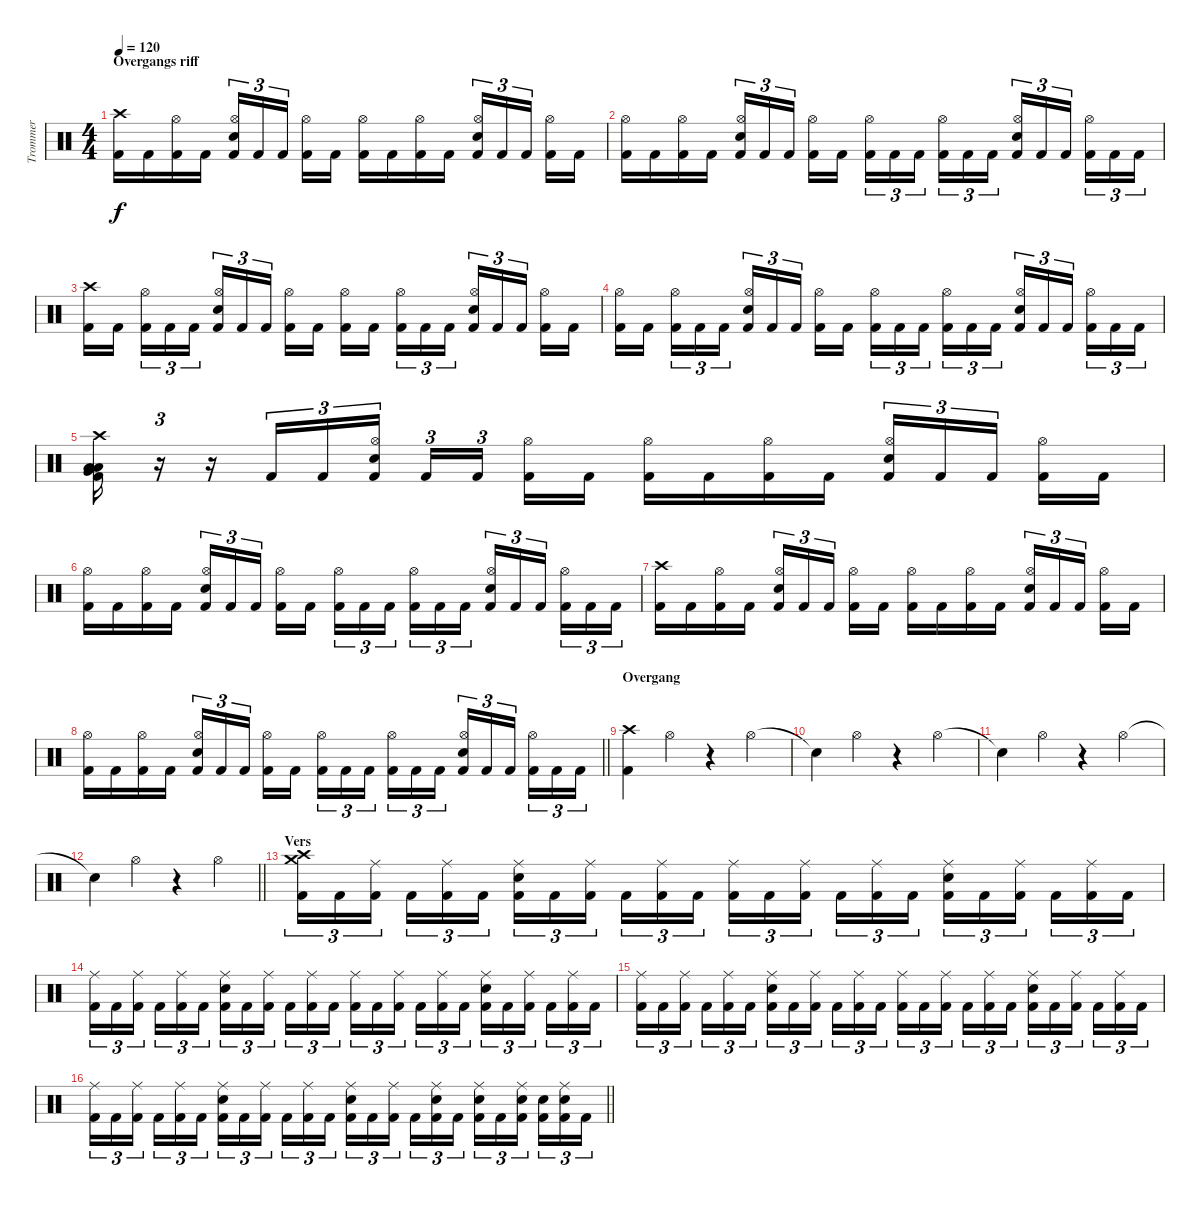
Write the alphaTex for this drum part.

\track ("Trommer" "Trommer") {instrument percussion}
\staff {score}
\articulation defaults
\ts (4 4)
\section ("" "Overgangs riff")
\tempo 120
\clef neutral
\ks c
("Crash high (hit)" "Kick (hit) 2").16{dy f} "Kick (hit) 2".16 ("Hi-Hat (open)" "Kick (hit) 2").16 "Kick (hit) 2".16 ("Hi-Hat (open)" "Snare (hit) 2" "Kick (hit) 2").16{tu (3 2)} "Kick (hit) 2".16{tu (3 2)} "Kick (hit) 2".16{tu (3 2) beam splitsecondary} ("Hi-Hat (open)" "Kick (hit) 2").16 "Kick (hit) 2".16 ("Hi-Hat (open)" "Kick (hit) 2").16 "Kick (hit) 2".16 ("Hi-Hat (open)" "Kick (hit) 2").16 "Kick (hit) 2".16 ("Hi-Hat (open)" "Snare (hit) 2" "Kick (hit) 2").16{tu (3 2)} "Kick (hit) 2".16{tu (3 2)} "Kick (hit) 2".16{tu (3 2) beam splitsecondary} ("Hi-Hat (open)" "Kick (hit) 2").16 "Kick (hit) 2".16 |
("Hi-Hat (open)" "Kick (hit) 2").16 "Kick (hit) 2".16 ("Hi-Hat (open)" "Kick (hit) 2").16 "Kick (hit) 2".16 ("Hi-Hat (open)" "Snare (hit) 2" "Kick (hit) 2").16{tu (3 2)} "Kick (hit) 2".16{tu (3 2)} "Kick (hit) 2".16{tu (3 2) beam splitsecondary} ("Hi-Hat (open)" "Kick (hit) 2").16 "Kick (hit) 2".16 ("Hi-Hat (open)" "Kick (hit) 2").16{tu (3 2)} "Kick (hit) 2".16{tu (3 2)} "Kick (hit) 2".16{tu (3 2) beam splitsecondary} ("Hi-Hat (open)" "Kick (hit) 2").16{tu (3 2)} "Kick (hit) 2".16{tu (3 2)} "Kick (hit) 2".16{tu (3 2)} ("Hi-Hat (open)" "Snare (hit) 2" "Kick (hit) 2").16{tu (3 2)} "Kick (hit) 2".16{tu (3 2)} "Kick (hit) 2".16{tu (3 2) beam splitsecondary} ("Hi-Hat (open)" "Kick (hit) 2").16{tu (3 2)} "Kick (hit) 2".16{tu (3 2)} "Kick (hit) 2".16{tu (3 2)} |
("Crash high (hit)" "Kick (hit) 2").16 "Kick (hit) 2".16{beam splitsecondary} ("Hi-Hat (open)" "Kick (hit) 2").16{tu (3 2)} "Kick (hit) 2".16{tu (3 2)} "Kick (hit) 2".16{tu (3 2)} ("Hi-Hat (open)" "Snare (hit) 2" "Kick (hit) 2").16{tu (3 2)} "Kick (hit) 2".16{tu (3 2)} "Kick (hit) 2".16{tu (3 2) beam splitsecondary} ("Hi-Hat (open)" "Kick (hit) 2").16 "Kick (hit) 2".16 ("Hi-Hat (open)" "Kick (hit) 2").16 "Kick (hit) 2".16{beam splitsecondary} ("Hi-Hat (open)" "Kick (hit) 2").16{tu (3 2)} "Kick (hit) 2".16{tu (3 2)} "Kick (hit) 2".16{tu (3 2)} ("Hi-Hat (open)" "Snare (hit) 2" "Kick (hit) 2").16{tu (3 2)} "Kick (hit) 2".16{tu (3 2)} "Kick (hit) 2".16{tu (3 2) beam splitsecondary} ("Hi-Hat (open)" "Kick (hit) 2").16 "Kick (hit) 2".16 |
("Hi-Hat (open)" "Kick (hit) 2").16 "Kick (hit) 2".16{beam splitsecondary} ("Hi-Hat (open)" "Kick (hit) 2").16{tu (3 2)} "Kick (hit) 2".16{tu (3 2)} "Kick (hit) 2".16{tu (3 2)} ("Hi-Hat (open)" "Snare (hit) 2" "Kick (hit) 2").16{tu (3 2)} "Kick (hit) 2".16{tu (3 2)} "Kick (hit) 2".16{tu (3 2) beam splitsecondary} ("Hi-Hat (open)" "Kick (hit) 2").16 "Kick (hit) 2".16 ("Hi-Hat (open)" "Kick (hit) 2").16{tu (3 2)} "Kick (hit) 2".16{tu (3 2)} "Kick (hit) 2".16{tu (3 2) beam splitsecondary} ("Hi-Hat (open)" "Kick (hit) 2").16{tu (3 2)} "Kick (hit) 2".16{tu (3 2)} "Kick (hit) 2".16{tu (3 2)} ("Hi-Hat (open)" "Snare (hit) 2" "Kick (hit) 2").16{tu (3 2)} "Kick (hit) 2".16{tu (3 2)} "Kick (hit) 2".16{tu (3 2) beam splitsecondary} ("Hi-Hat (open)" "Kick (hit) 2").16{tu (3 2)} "Kick (hit) 2".16{tu (3 2)} "Kick (hit) 2".16{tu (3 2)} |
("Crash high (hit)" "Low Floor Tom (hit)" "Low Tom (hit)" "Very Low Tom (hit)" "Kick (hit) 2").16 r.16{tu (3 2)} r.16 "Kick (hit) 2".16{tu (3 2)} "Kick (hit) 2".16{tu (3 2)} ("Hi-Hat (open)" "Snare (hit) 2" "Kick (hit) 2").16{tu (3 2) beam splitsecondary} "Kick (hit) 2".16{tu (3 2)} "Kick (hit) 2".16{tu (3 2) beam splitsecondary} ("Hi-Hat (open)" "Kick (hit) 2").16 "Kick (hit) 2".16 ("Hi-Hat (open)" "Kick (hit) 2").16 "Kick (hit) 2".16 ("Hi-Hat (open)" "Kick (hit) 2").16 "Kick (hit) 2".16 ("Hi-Hat (open)" "Snare (hit) 2" "Kick (hit) 2").16{tu (3 2)} "Kick (hit) 2".16{tu (3 2)} "Kick (hit) 2".16{tu (3 2) beam splitsecondary} ("Hi-Hat (open)" "Kick (hit) 2").16 "Kick (hit) 2".16 |
("Hi-Hat (open)" "Kick (hit) 2").16 "Kick (hit) 2".16 ("Hi-Hat (open)" "Kick (hit) 2").16 "Kick (hit) 2".16 ("Hi-Hat (open)" "Snare (hit) 2" "Kick (hit) 2").16{tu (3 2)} "Kick (hit) 2".16{tu (3 2)} "Kick (hit) 2".16{tu (3 2) beam splitsecondary} ("Hi-Hat (open)" "Kick (hit) 2").16 "Kick (hit) 2".16 ("Hi-Hat (open)" "Kick (hit) 2").16{tu (3 2)} "Kick (hit) 2".16{tu (3 2)} "Kick (hit) 2".16{tu (3 2) beam splitsecondary} ("Hi-Hat (open)" "Kick (hit) 2").16{tu (3 2)} "Kick (hit) 2".16{tu (3 2)} "Kick (hit) 2".16{tu (3 2)} ("Hi-Hat (open)" "Snare (hit) 2" "Kick (hit) 2").16{tu (3 2)} "Kick (hit) 2".16{tu (3 2)} "Kick (hit) 2".16{tu (3 2) beam splitsecondary} ("Hi-Hat (open)" "Kick (hit) 2").16{tu (3 2)} "Kick (hit) 2".16{tu (3 2)} "Kick (hit) 2".16{tu (3 2)} |
("Crash high (hit)" "Kick (hit) 2").16 "Kick (hit) 2".16 ("Hi-Hat (open)" "Kick (hit) 2").16 "Kick (hit) 2".16 ("Hi-Hat (open)" "Snare (hit) 2" "Kick (hit) 2").16{tu (3 2)} "Kick (hit) 2".16{tu (3 2)} "Kick (hit) 2".16{tu (3 2) beam splitsecondary} ("Hi-Hat (open)" "Kick (hit) 2").16 "Kick (hit) 2".16 ("Hi-Hat (open)" "Kick (hit) 2").16 "Kick (hit) 2".16 ("Hi-Hat (open)" "Kick (hit) 2").16 "Kick (hit) 2".16 ("Hi-Hat (open)" "Snare (hit) 2" "Kick (hit) 2").16{tu (3 2)} "Kick (hit) 2".16{tu (3 2)} "Kick (hit) 2".16{tu (3 2) beam splitsecondary} ("Hi-Hat (open)" "Kick (hit) 2").16 "Kick (hit) 2".16 |
\barLineRight lightlight
("Hi-Hat (open)" "Kick (hit) 2").16 "Kick (hit) 2".16 ("Hi-Hat (open)" "Kick (hit) 2").16 "Kick (hit) 2".16 ("Hi-Hat (open)" "Snare (hit) 2" "Kick (hit) 2").16{tu (3 2)} "Kick (hit) 2".16{tu (3 2)} "Kick (hit) 2".16{tu (3 2) beam splitsecondary} ("Hi-Hat (open)" "Kick (hit) 2").16 "Kick (hit) 2".16 ("Hi-Hat (open)" "Kick (hit) 2").16{tu (3 2)} "Kick (hit) 2".16{tu (3 2)} "Kick (hit) 2".16{tu (3 2) beam splitsecondary} ("Hi-Hat (open)" "Kick (hit) 2").16{tu (3 2)} "Kick (hit) 2".16{tu (3 2)} "Kick (hit) 2".16{tu (3 2)} ("Hi-Hat (open)" "Snare (hit) 2" "Kick (hit) 2").16{tu (3 2)} "Kick (hit) 2".16{tu (3 2)} "Kick (hit) 2".16{tu (3 2) beam splitsecondary} ("Hi-Hat (open)" "Kick (hit) 2").16{tu (3 2)} "Kick (hit) 2".16{tu (3 2)} "Kick (hit) 2".16{tu (3 2)} |
\section ("" "Overgang")
("Crash high (hit)" "Kick (hit) 2").4 "Hi-Hat (open)".4 r.4 "Hi-Hat (open)".4 |
"Snare (hit)"{t}.4 "Hi-Hat (open)".4 r.4 "Hi-Hat (open)".4 |
"Snare (hit)"{t}.4 "Hi-Hat (open)".4 r.4 "Hi-Hat (open)".4 |
\barLineRight lightlight "Snare (hit)"{t}.4 "Hi-Hat (open)".4
r.4 "Hi-Hat (open)".4 |
\section ("" "Vers")
("Crash medium (hit)" "Crash high (hit)" "Kick (hit) 2").16{tu (3 2)} "Kick (hit) 2".16{tu (3 2)} ("Ride (middle)" "Kick (hit) 2").16{tu (3 2) beam splitsecondary} "Kick (hit) 2".16{tu (3 2)} ("Ride (middle)" "Kick (hit) 2").16{tu (3 2)} "Kick (hit) 2".16{tu (3 2)} ("Ride (middle)" "Snare (hit) 2" "Kick (hit) 2").16{tu (3 2)} "Kick (hit) 2".16{tu (3 2)} ("Ride (middle)" "Kick (hit) 2").16{tu (3 2) beam splitsecondary} "Kick (hit) 2".16{tu (3 2)} ("Ride (middle)" "Kick (hit) 2").16{tu (3 2)} "Kick (hit) 2".16{tu (3 2)} ("Ride (middle)" "Kick (hit) 2").16{tu (3 2)} "Kick (hit) 2".16{tu (3 2)} ("Ride (middle)" "Kick (hit) 2").16{tu (3 2) beam splitsecondary} "Kick (hit) 2".16{tu (3 2)} ("Ride (middle)" "Kick (hit) 2").16{tu (3 2)} "Kick (hit) 2".16{tu (3 2)} ("Ride (middle)" "Snare (hit) 2" "Kick (hit) 2").16{tu (3 2)} "Kick (hit) 2".16{tu (3 2)} ("Ride (middle)" "Kick (hit) 2").16{tu (3 2) beam splitsecondary} "Kick (hit) 2".16{tu (3 2)} ("Ride (middle)" "Kick (hit) 2").16{tu (3 2)} "Kick (hit) 2".16{tu (3 2)} |
("Ride (middle)" "Kick (hit) 2").16{tu (3 2)} "Kick (hit) 2".16{tu (3 2)} ("Ride (middle)" "Kick (hit) 2").16{tu (3 2) beam splitsecondary} "Kick (hit) 2".16{tu (3 2)} ("Ride (middle)" "Kick (hit) 2").16{tu (3 2)} "Kick (hit) 2".16{tu (3 2)} ("Ride (middle)" "Snare (hit) 2" "Kick (hit) 2").16{tu (3 2)} "Kick (hit) 2".16{tu (3 2)} ("Ride (middle)" "Kick (hit) 2").16{tu (3 2) beam splitsecondary} "Kick (hit) 2".16{tu (3 2)} ("Ride (middle)" "Kick (hit) 2").16{tu (3 2)} "Kick (hit) 2".16{tu (3 2)} ("Ride (middle)" "Kick (hit) 2").16{tu (3 2)} "Kick (hit) 2".16{tu (3 2)} ("Ride (middle)" "Kick (hit) 2").16{tu (3 2) beam splitsecondary} "Kick (hit) 2".16{tu (3 2)} ("Ride (middle)" "Kick (hit) 2").16{tu (3 2)} "Kick (hit) 2".16{tu (3 2)} ("Ride (middle)" "Snare (hit) 2" "Kick (hit) 2").16{tu (3 2)} "Kick (hit) 2".16{tu (3 2)} ("Ride (middle)" "Kick (hit) 2").16{tu (3 2) beam splitsecondary} "Kick (hit) 2".16{tu (3 2)} ("Ride (middle)" "Kick (hit) 2").16{tu (3 2)} "Kick (hit) 2".16{tu (3 2)} |
("Ride (middle)" "Kick (hit) 2").16{tu (3 2)} "Kick (hit) 2".16{tu (3 2)} ("Ride (middle)" "Kick (hit) 2").16{tu (3 2) beam splitsecondary} "Kick (hit) 2".16{tu (3 2)} ("Ride (middle)" "Kick (hit) 2").16{tu (3 2)} "Kick (hit) 2".16{tu (3 2)} ("Ride (middle)" "Snare (hit) 2" "Kick (hit) 2").16{tu (3 2)} "Kick (hit) 2".16{tu (3 2)} ("Ride (middle)" "Kick (hit) 2").16{tu (3 2) beam splitsecondary} "Kick (hit) 2".16{tu (3 2)} ("Ride (middle)" "Kick (hit) 2").16{tu (3 2)} "Kick (hit) 2".16{tu (3 2)} ("Ride (middle)" "Kick (hit) 2").16{tu (3 2)} "Kick (hit) 2".16{tu (3 2)} ("Ride (middle)" "Kick (hit) 2").16{tu (3 2) beam splitsecondary} "Kick (hit) 2".16{tu (3 2)} ("Ride (middle)" "Kick (hit) 2").16{tu (3 2)} "Kick (hit) 2".16{tu (3 2)} ("Ride (middle)" "Snare (hit) 2" "Kick (hit) 2").16{tu (3 2)} "Kick (hit) 2".16{tu (3 2)} ("Ride (middle)" "Kick (hit) 2").16{tu (3 2) beam splitsecondary} "Kick (hit) 2".16{tu (3 2)} ("Ride (middle)" "Kick (hit) 2").16{tu (3 2)} "Kick (hit) 2".16{tu (3 2)} |
\barLineRight lightlight
("Ride (middle)" "Kick (hit) 2").16{tu (3 2)} "Kick (hit) 2".16{tu (3 2)} ("Ride (middle)" "Kick (hit) 2").16{tu (3 2) beam splitsecondary} "Kick (hit) 2".16{tu (3 2)} ("Ride (middle)" "Kick (hit) 2").16{tu (3 2)} "Kick (hit) 2".16{tu (3 2)} ("Ride (middle)" "Snare (hit) 2" "Kick (hit) 2").16{tu (3 2)} "Kick (hit) 2".16{tu (3 2)} ("Ride (middle)" "Kick (hit) 2").16{tu (3 2) beam splitsecondary} "Kick (hit) 2".16{tu (3 2)} ("Ride (middle)" "Kick (hit) 2").16{tu (3 2)} "Kick (hit) 2".16{tu (3 2)} ("Ride (middle)" "Snare (hit) 2" "Kick (hit) 2").16{tu (3 2)} "Kick (hit) 2".16{tu (3 2)} ("Ride (middle)" "Kick (hit) 2").16{tu (3 2) beam splitsecondary} "Kick (hit) 2".16{tu (3 2)} ("Ride (middle)" "Snare (hit) 2" "Kick (hit) 2").16{tu (3 2)} "Kick (hit) 2".16{tu (3 2)} ("Ride (middle)" "Snare (hit) 2" "Kick (hit) 2").16{tu (3 2)} "Kick (hit) 2".16{tu (3 2)} ("Ride (middle)" "Snare (hit) 2" "Kick (hit) 2").16{tu (3 2) beam splitsecondary} ("Snare (hit) 2" "Kick (hit) 2").16{tu (3 2)} ("Ride (middle)" "Snare (hit) 2" "Kick (hit) 2").16{tu (3 2)} "Kick (hit) 2".16{tu (3 2)}
